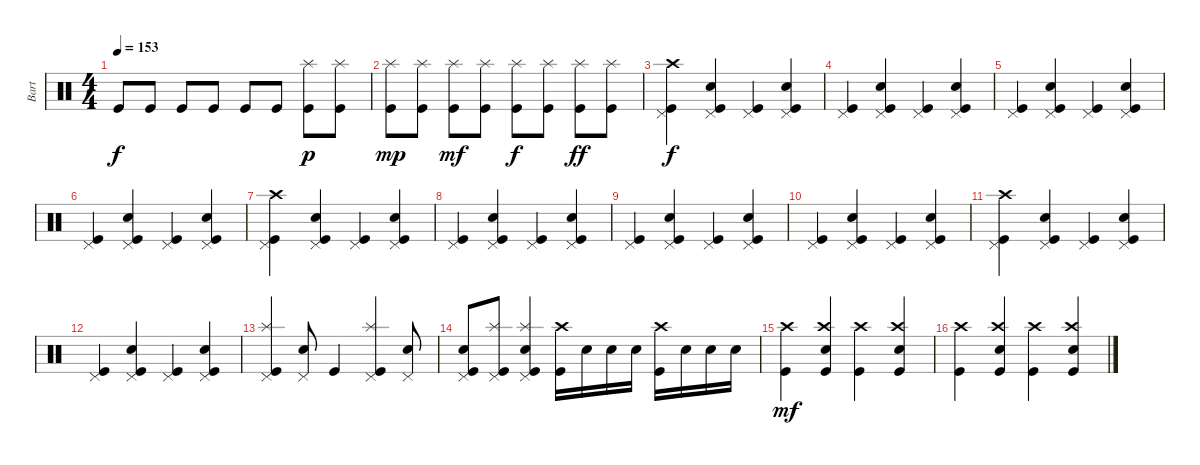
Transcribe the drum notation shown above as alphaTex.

\track ("Bart" "Bart") {instrument percussion}
\staff {score}
\articulation defaults
\ts (4 4)
\tempo 153
\clef neutral
\ks c "Kick (hit)".8{dy f} "Kick (hit)".8 "Kick (hit)".8 "Kick (hit)".8 "Kick (hit)".8 "Kick (hit)".8
("Kick (hit)" "Splash (hit)").8{dy p} ("Kick (hit)" "Splash (hit)").8 |
("Kick (hit)" "Splash (hit)").8{dy mp} ("Kick (hit)" "Splash (hit)").8 ("Kick (hit)" "Splash (hit)").8{dy mf} ("Kick (hit)" "Splash (hit)").8 ("Kick (hit)" "Splash (hit)").8{dy f} ("Kick (hit)" "Splash (hit)").8 ("Kick (hit)" "Splash (hit)").8{dy ff} ("Kick (hit)" "Splash (hit)").8 |
("Kick (hit)" "Pedal Hi-Hat (hit)" "Crash high (hit)").4{dy f} ("Kick (hit)" "Electric Snare (hit)" "Pedal Hi-Hat (hit)").4 ("Kick (hit)" "Pedal Hi-Hat (hit)").4 ("Kick (hit)" "Electric Snare (hit)" "Pedal Hi-Hat (hit)").4 |
("Kick (hit)" "Pedal Hi-Hat (hit)").4 ("Kick (hit)" "Electric Snare (hit)" "Pedal Hi-Hat (hit)").4 ("Kick (hit)" "Pedal Hi-Hat (hit)").4 ("Kick (hit)" "Electric Snare (hit)" "Pedal Hi-Hat (hit)").4 |
("Kick (hit)" "Pedal Hi-Hat (hit)").4 ("Kick (hit)" "Electric Snare (hit)" "Pedal Hi-Hat (hit)").4 ("Kick (hit)" "Pedal Hi-Hat (hit)").4 ("Kick (hit)" "Electric Snare (hit)" "Pedal Hi-Hat (hit)").4 |
("Kick (hit)" "Pedal Hi-Hat (hit)").4 ("Kick (hit)" "Electric Snare (hit)" "Pedal Hi-Hat (hit)").4 ("Kick (hit)" "Pedal Hi-Hat (hit)").4 ("Kick (hit)" "Electric Snare (hit)" "Pedal Hi-Hat (hit)").4 |
("Kick (hit)" "Pedal Hi-Hat (hit)" "Crash high (hit)").4 ("Kick (hit)" "Electric Snare (hit)" "Pedal Hi-Hat (hit)").4 ("Kick (hit)" "Pedal Hi-Hat (hit)").4 ("Kick (hit)" "Electric Snare (hit)" "Pedal Hi-Hat (hit)").4 |
("Kick (hit)" "Pedal Hi-Hat (hit)").4 ("Kick (hit)" "Electric Snare (hit)" "Pedal Hi-Hat (hit)").4 ("Kick (hit)" "Pedal Hi-Hat (hit)").4 ("Kick (hit)" "Electric Snare (hit)" "Pedal Hi-Hat (hit)").4 |
("Kick (hit)" "Pedal Hi-Hat (hit)").4 ("Kick (hit)" "Electric Snare (hit)" "Pedal Hi-Hat (hit)").4 ("Kick (hit)" "Pedal Hi-Hat (hit)").4 ("Kick (hit)" "Electric Snare (hit)" "Pedal Hi-Hat (hit)").4 |
("Kick (hit)" "Pedal Hi-Hat (hit)").4 ("Kick (hit)" "Electric Snare (hit)" "Pedal Hi-Hat (hit)").4 ("Kick (hit)" "Pedal Hi-Hat (hit)").4 ("Kick (hit)" "Electric Snare (hit)" "Pedal Hi-Hat (hit)").4 |
("Kick (hit)" "Pedal Hi-Hat (hit)" "Crash high (hit)").4 ("Kick (hit)" "Electric Snare (hit)" "Pedal Hi-Hat (hit)").4 ("Kick (hit)" "Pedal Hi-Hat (hit)").4 ("Kick (hit)" "Electric Snare (hit)" "Pedal Hi-Hat (hit)").4 |
("Kick (hit)" "Pedal Hi-Hat (hit)").4 ("Kick (hit)" "Electric Snare (hit)" "Pedal Hi-Hat (hit)").4 ("Kick (hit)" "Pedal Hi-Hat (hit)").4 ("Kick (hit)" "Electric Snare (hit)" "Pedal Hi-Hat (hit)").4 |
("Kick (hit)" "Pedal Hi-Hat (hit)" "Splash (hit)").4 ("Electric Snare (hit)" "Pedal Hi-Hat (hit)").8 "Kick (hit)".4 ("Kick (hit)" "Pedal Hi-Hat (hit)" "Splash (hit)").4 ("Electric Snare (hit)" "Pedal Hi-Hat (hit)").8 |
("Kick (hit)" "Electric Snare (hit)" "Pedal Hi-Hat (hit)").8 ("Kick (hit)" "Pedal Hi-Hat (hit)" "Splash (hit)").8 ("Kick (hit)" "Electric Snare (hit)" "Pedal Hi-Hat (hit)" "Splash (hit)").4 ("Kick (hit)" "Crash high (hit)").16 "Electric Snare (hit)".16 "Electric Snare (hit)".16 "Electric Snare (hit)".16 ("Kick (hit)" "Crash high (hit)").16 "Electric Snare (hit)".16 "Electric Snare (hit)".16 "Electric Snare (hit)".16 |
("Kick (hit)" "Crash high (hit)").4{dy mf} ("Kick (hit)" "Electric Snare (hit)" "Crash high (hit)").4 ("Kick (hit)" "Crash high (hit)").4 ("Kick (hit)" "Electric Snare (hit)" "Crash high (hit)").4 |
("Kick (hit)" "Crash high (hit)").4 ("Kick (hit)" "Electric Snare (hit)" "Crash high (hit)").4 ("Kick (hit)" "Crash high (hit)").4 ("Kick (hit)" "Electric Snare (hit)" "Crash high (hit)").4
